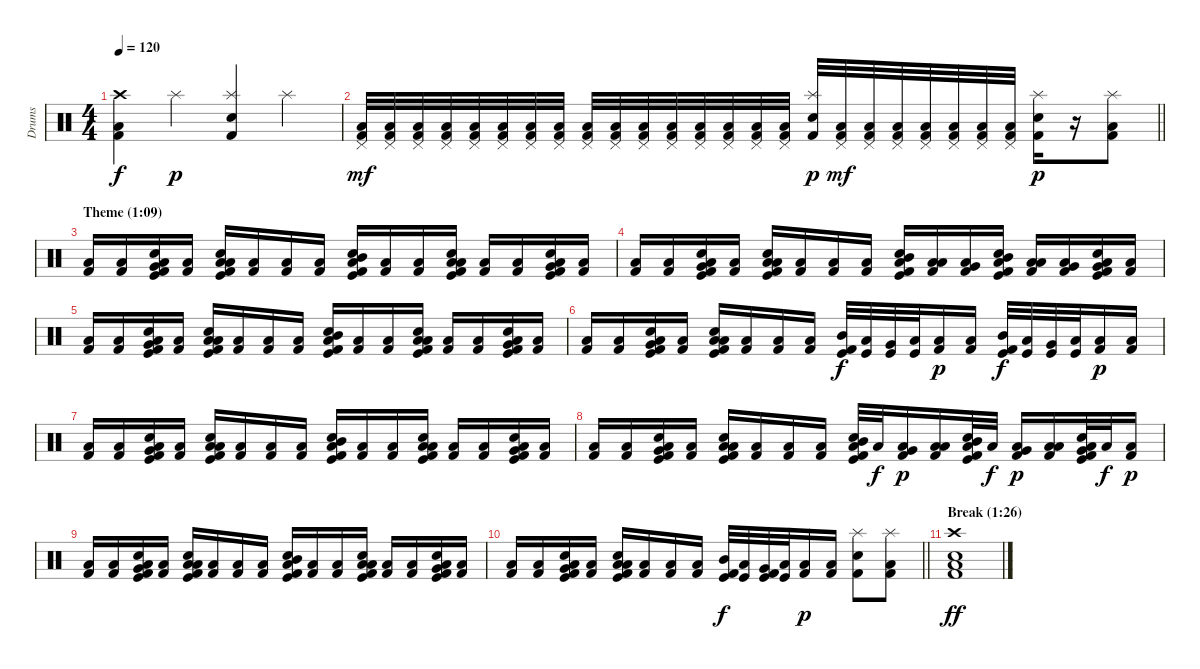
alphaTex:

\track ("Drums" "Drums") {instrument percussion}
\staff {score}
\articulation defaults
\ts (4 4)
\tempo 120
\clef neutral
\ks c
("Crash high (hit)" "Low Floor Tom (hit)" "Kick (hit) 2").4{dy f} "Splash (hit)".4{dy p} ("Splash (hit)" "Snare (hit) 2" "Kick (hit) 2").4 "Splash (hit)".4 |
\barLineRight lightlight
("Pedal Hi-Hat (hit)" "Low Floor Tom (hit)" "Kick (hit) 2").32{dy mf} ("Pedal Hi-Hat (hit)" "Low Floor Tom (hit)" "Kick (hit) 2").32 ("Pedal Hi-Hat (hit)" "Low Floor Tom (hit)" "Kick (hit) 2").32 ("Pedal Hi-Hat (hit)" "Low Floor Tom (hit)" "Kick (hit) 2").32 ("Pedal Hi-Hat (hit)" "Low Floor Tom (hit)" "Kick (hit) 2").32 ("Pedal Hi-Hat (hit)" "Low Floor Tom (hit)" "Kick (hit) 2").32 ("Pedal Hi-Hat (hit)" "Low Floor Tom (hit)" "Kick (hit) 2").32 ("Pedal Hi-Hat (hit)" "Low Floor Tom (hit)" "Kick (hit) 2").32 ("Pedal Hi-Hat (hit)" "Low Floor Tom (hit)" "Kick (hit) 2").32 ("Pedal Hi-Hat (hit)" "Low Floor Tom (hit)" "Kick (hit) 2").32 ("Pedal Hi-Hat (hit)" "Low Floor Tom (hit)" "Kick (hit) 2").32 ("Pedal Hi-Hat (hit)" "Low Floor Tom (hit)" "Kick (hit) 2").32 ("Pedal Hi-Hat (hit)" "Low Floor Tom (hit)" "Kick (hit) 2").32 ("Pedal Hi-Hat (hit)" "Low Floor Tom (hit)" "Kick (hit) 2").32 ("Pedal Hi-Hat (hit)" "Low Floor Tom (hit)" "Kick (hit) 2").32 ("Pedal Hi-Hat (hit)" "Low Floor Tom (hit)" "Kick (hit) 2").32 ("Splash (hit)" "Snare (hit) 2" "Kick (hit) 2").32{dy p} ("Pedal Hi-Hat (hit)" "Low Floor Tom (hit)" "Kick (hit) 2").32{dy mf} ("Pedal Hi-Hat (hit)" "Low Floor Tom (hit)" "Kick (hit) 2").32 ("Pedal Hi-Hat (hit)" "Low Floor Tom (hit)" "Kick (hit) 2").32 ("Pedal Hi-Hat (hit)" "Low Floor Tom (hit)" "Kick (hit) 2").32 ("Pedal Hi-Hat (hit)" "Low Floor Tom (hit)" "Kick (hit) 2").32 ("Pedal Hi-Hat (hit)" "Low Floor Tom (hit)" "Kick (hit) 2").32 ("Pedal Hi-Hat (hit)" "Low Floor Tom (hit)" "Kick (hit) 2").32 ("Splash (hit)" "Snare (hit) 2" "Kick (hit) 2").16{dy p} r.16 ("Splash (hit)" "Low Floor Tom (hit)" "Kick (hit) 2").8 |
\section ("" "Theme (1:09)")
("Low Floor Tom (hit)" "Kick (hit) 2").16 ("Low Floor Tom (hit)" "Kick (hit) 2").16 ("Snare (hit) 2" "Kick (hit)" "Very Low Tom (hit)" "Low Floor Tom (hit)" "Kick (hit) 2").16 ("Low Floor Tom (hit)" "Kick (hit) 2").16 ("Snare (hit) 2" "Kick (hit)" "Low Floor Tom (hit)" "Low Floor Tom (hit)" "Kick (hit) 2").16 ("Low Floor Tom (hit)" "Kick (hit) 2").16 ("Low Floor Tom (hit)" "Kick (hit) 2").16 ("Low Floor Tom (hit)" "Kick (hit) 2").16 ("Snare (hit) 2" "Kick (hit)" "Mid Tom (hit)" "Low Floor Tom (hit)" "Kick (hit) 2").16 ("Low Floor Tom (hit)" "Kick (hit) 2").16 ("Low Floor Tom (hit)" "Kick (hit) 2").16 ("Snare (hit) 2" "Kick (hit)" "Low Tom (hit)" "Low Floor Tom (hit)" "Kick (hit) 2").16 ("Low Floor Tom (hit)" "Kick (hit) 2").16 ("Low Floor Tom (hit)" "Kick (hit) 2").16 ("Snare (hit) 2" "Kick (hit)" "Very Low Tom (hit)" "Low Floor Tom (hit)" "Kick (hit) 2").16 ("Low Floor Tom (hit)" "Kick (hit) 2").16 |
("Low Floor Tom (hit)" "Kick (hit) 2").16 ("Low Floor Tom (hit)" "Kick (hit) 2").16 ("Snare (hit) 2" "Kick (hit)" "Very Low Tom (hit)" "Low Floor Tom (hit)" "Kick (hit) 2").16 ("Low Floor Tom (hit)" "Kick (hit) 2").16 ("Snare (hit) 2" "Kick (hit)" "Low Floor Tom (hit)" "Low Floor Tom (hit)" "Kick (hit) 2").16 ("Low Floor Tom (hit)" "Kick (hit) 2").16 ("Low Floor Tom (hit)" "Kick (hit) 2").16 ("Low Floor Tom (hit)" "Kick (hit) 2").16 ("Snare (hit) 2" "Kick (hit)" "Mid Tom (hit)" "Low Floor Tom (hit)" "Kick (hit) 2").16 ("Low Tom (hit)" "Low Floor Tom (hit)" "Kick (hit) 2").16 ("Very Low Tom (hit)" "Low Floor Tom (hit)" "Kick (hit) 2").16 ("Snare (hit) 2" "Kick (hit)" "Mid Tom (hit)" "Low Floor Tom (hit)" "Kick (hit) 2").16 ("Low Tom (hit)" "Low Floor Tom (hit)" "Kick (hit) 2").16 ("Very Low Tom (hit)" "Low Floor Tom (hit)" "Kick (hit) 2").16 ("Snare (hit) 2" "Kick (hit)" "Very Low Tom (hit)" "Low Floor Tom (hit)" "Kick (hit) 2").16 ("Low Floor Tom (hit)" "Kick (hit) 2").16 |
("Low Floor Tom (hit)" "Kick (hit) 2").16 ("Low Floor Tom (hit)" "Kick (hit) 2").16 ("Snare (hit) 2" "Kick (hit)" "Very Low Tom (hit)" "Low Floor Tom (hit)" "Kick (hit) 2").16 ("Low Floor Tom (hit)" "Kick (hit) 2").16 ("Snare (hit) 2" "Kick (hit)" "Low Floor Tom (hit)" "Low Floor Tom (hit)" "Kick (hit) 2").16 ("Low Floor Tom (hit)" "Kick (hit) 2").16 ("Low Floor Tom (hit)" "Kick (hit) 2").16 ("Low Floor Tom (hit)" "Kick (hit) 2").16 ("Snare (hit) 2" "Kick (hit)" "Mid Tom (hit)" "Low Floor Tom (hit)" "Kick (hit) 2").16 ("Low Floor Tom (hit)" "Kick (hit) 2").16 ("Low Floor Tom (hit)" "Kick (hit) 2").16 ("Snare (hit) 2" "Kick (hit)" "Low Tom (hit)" "Low Floor Tom (hit)" "Kick (hit) 2").16 ("Low Floor Tom (hit)" "Kick (hit) 2").16 ("Low Floor Tom (hit)" "Kick (hit) 2").16 ("Snare (hit) 2" "Kick (hit)" "Very Low Tom (hit)" "Low Floor Tom (hit)" "Kick (hit) 2").16 ("Low Floor Tom (hit)" "Kick (hit) 2").16 |
("Low Floor Tom (hit)" "Kick (hit) 2").16 ("Low Floor Tom (hit)" "Kick (hit) 2").16 ("Snare (hit) 2" "Kick (hit)" "Very Low Tom (hit)" "Low Floor Tom (hit)" "Kick (hit) 2").16 ("Low Floor Tom (hit)" "Kick (hit) 2").16 ("Snare (hit) 2" "Kick (hit)" "Low Floor Tom (hit)" "Low Floor Tom (hit)" "Kick (hit) 2").16 ("Low Floor Tom (hit)" "Kick (hit) 2").16 ("Low Floor Tom (hit)" "Kick (hit) 2").16 ("Low Floor Tom (hit)" "Kick (hit) 2").16 ("Kick (hit)" "Mid Tom (hit)" "Kick (hit) 2").32{dy f} ("Kick (hit)" "Low Tom (hit)").32 ("Kick (hit)" "Very Low Tom (hit)").32 ("Kick (hit)" "Low Floor Tom (hit)").32 ("Low Floor Tom (hit)" "Kick (hit) 2").16{dy p} ("Low Floor Tom (hit)" "Kick (hit) 2").16 ("Kick (hit)" "Mid Tom (hit)" "Kick (hit) 2").32{dy f} ("Kick (hit)" "Low Tom (hit)").32 ("Kick (hit)" "Very Low Tom (hit)").32 ("Kick (hit)" "Low Floor Tom (hit)").32 ("Low Floor Tom (hit)" "Kick (hit) 2").16{dy p} ("Low Floor Tom (hit)" "Kick (hit) 2").16 |
("Low Floor Tom (hit)" "Kick (hit) 2").16 ("Low Floor Tom (hit)" "Kick (hit) 2").16 ("Snare (hit) 2" "Kick (hit)" "Very Low Tom (hit)" "Low Floor Tom (hit)" "Kick (hit) 2").16 ("Low Floor Tom (hit)" "Kick (hit) 2").16 ("Snare (hit) 2" "Kick (hit)" "Low Floor Tom (hit)" "Low Floor Tom (hit)" "Kick (hit) 2").16 ("Low Floor Tom (hit)" "Kick (hit) 2").16 ("Low Floor Tom (hit)" "Kick (hit) 2").16 ("Low Floor Tom (hit)" "Kick (hit) 2").16 ("Snare (hit) 2" "Kick (hit)" "Mid Tom (hit)" "Low Floor Tom (hit)" "Kick (hit) 2").16 ("Low Floor Tom (hit)" "Kick (hit) 2").16 ("Low Floor Tom (hit)" "Kick (hit) 2").16 ("Snare (hit) 2" "Kick (hit)" "Low Tom (hit)" "Low Floor Tom (hit)" "Kick (hit) 2").16 ("Low Floor Tom (hit)" "Kick (hit) 2").16 ("Low Floor Tom (hit)" "Kick (hit) 2").16 ("Snare (hit) 2" "Kick (hit)" "Very Low Tom (hit)" "Low Floor Tom (hit)" "Kick (hit) 2").16 ("Low Floor Tom (hit)" "Kick (hit) 2").16 |
("Low Floor Tom (hit)" "Kick (hit) 2").16 ("Low Floor Tom (hit)" "Kick (hit) 2").16 ("Snare (hit) 2" "Kick (hit)" "Very Low Tom (hit)" "Low Floor Tom (hit)" "Kick (hit) 2").16 ("Low Floor Tom (hit)" "Kick (hit) 2").16 ("Snare (hit) 2" "Kick (hit)" "Low Floor Tom (hit)" "Low Floor Tom (hit)" "Kick (hit) 2").16 ("Low Floor Tom (hit)" "Kick (hit) 2").16 ("Low Floor Tom (hit)" "Kick (hit) 2").16 ("Low Floor Tom (hit)" "Kick (hit) 2").16 ("Snare (hit) 2" "Kick (hit)" "Mid Tom (hit)" "Low Floor Tom (hit)" "Kick (hit) 2").32 "Low Tom (hit)".32{dy f} ("Very Low Tom (hit)" "Low Floor Tom (hit)" "Kick (hit) 2").16{dy p} ("Low Floor Tom (hit)" "Low Floor Tom (hit)" "Kick (hit) 2").16 ("Snare (hit) 2" "Kick (hit)" "Mid Tom (hit)" "Low Floor Tom (hit)" "Kick (hit) 2").32 "Low Tom (hit)".32{dy f} ("Very Low Tom (hit)" "Low Floor Tom (hit)" "Kick (hit) 2").16{dy p} ("Low Floor Tom (hit)" "Low Floor Tom (hit)" "Kick (hit) 2").16 ("Snare (hit) 2" "Kick (hit)" "Very Low Tom (hit)" "Low Floor Tom (hit)" "Kick (hit) 2").32 "Low Floor Tom (hit)".32{dy f} ("Low Floor Tom (hit)" "Kick (hit) 2").16{dy p} |
("Low Floor Tom (hit)" "Kick (hit) 2").16 ("Low Floor Tom (hit)" "Kick (hit) 2").16 ("Snare (hit) 2" "Kick (hit)" "Very Low Tom (hit)" "Low Floor Tom (hit)" "Kick (hit) 2").16 ("Low Floor Tom (hit)" "Kick (hit) 2").16 ("Snare (hit) 2" "Kick (hit)" "Low Floor Tom (hit)" "Low Floor Tom (hit)" "Kick (hit) 2").16 ("Low Floor Tom (hit)" "Kick (hit) 2").16 ("Low Floor Tom (hit)" "Kick (hit) 2").16 ("Low Floor Tom (hit)" "Kick (hit) 2").16 ("Snare (hit) 2" "Kick (hit)" "Mid Tom (hit)" "Low Floor Tom (hit)" "Kick (hit) 2").16 ("Low Floor Tom (hit)" "Kick (hit) 2").16 ("Low Floor Tom (hit)" "Kick (hit) 2").16 ("Snare (hit) 2" "Kick (hit)" "Low Tom (hit)" "Low Floor Tom (hit)" "Kick (hit) 2").16 ("Low Floor Tom (hit)" "Kick (hit) 2").16 ("Low Floor Tom (hit)" "Kick (hit) 2").16 ("Snare (hit) 2" "Kick (hit)" "Very Low Tom (hit)" "Low Floor Tom (hit)" "Kick (hit) 2").16 ("Low Floor Tom (hit)" "Kick (hit) 2").16 |
\barLineRight lightlight
("Low Floor Tom (hit)" "Kick (hit) 2").16 ("Low Floor Tom (hit)" "Kick (hit) 2").16 ("Snare (hit) 2" "Kick (hit)" "Very Low Tom (hit)" "Low Floor Tom (hit)" "Kick (hit) 2").16 ("Low Floor Tom (hit)" "Kick (hit) 2").16 ("Snare (hit) 2" "Kick (hit)" "Low Floor Tom (hit)" "Low Floor Tom (hit)" "Kick (hit) 2").16 ("Low Floor Tom (hit)" "Kick (hit) 2").16 ("Low Floor Tom (hit)" "Kick (hit) 2").16 ("Low Floor Tom (hit)" "Kick (hit) 2").16 ("Kick (hit)" "Mid Tom (hit)" "Kick (hit) 2").32{dy f} ("Kick (hit)" "Low Tom (hit)").32 ("Kick (hit)" "Very Low Tom (hit)" "Kick (hit) 2").32 ("Kick (hit)" "Low Floor Tom (hit)").32 ("Low Floor Tom (hit)" "Kick (hit) 2").16{dy p} ("Low Floor Tom (hit)" "Kick (hit) 2").16 ("Splash (hit)" "Snare (hit) 2" "Kick (hit) 2").8 ("Splash (hit)" "Low Floor Tom (hit)" "Kick (hit) 2").8 |
\section ("" "Break (1:26)")
("Crash high (hit)" "Snare (hit) 2" "Low Floor Tom (hit)" "Kick (hit) 2").1{dy ff}
